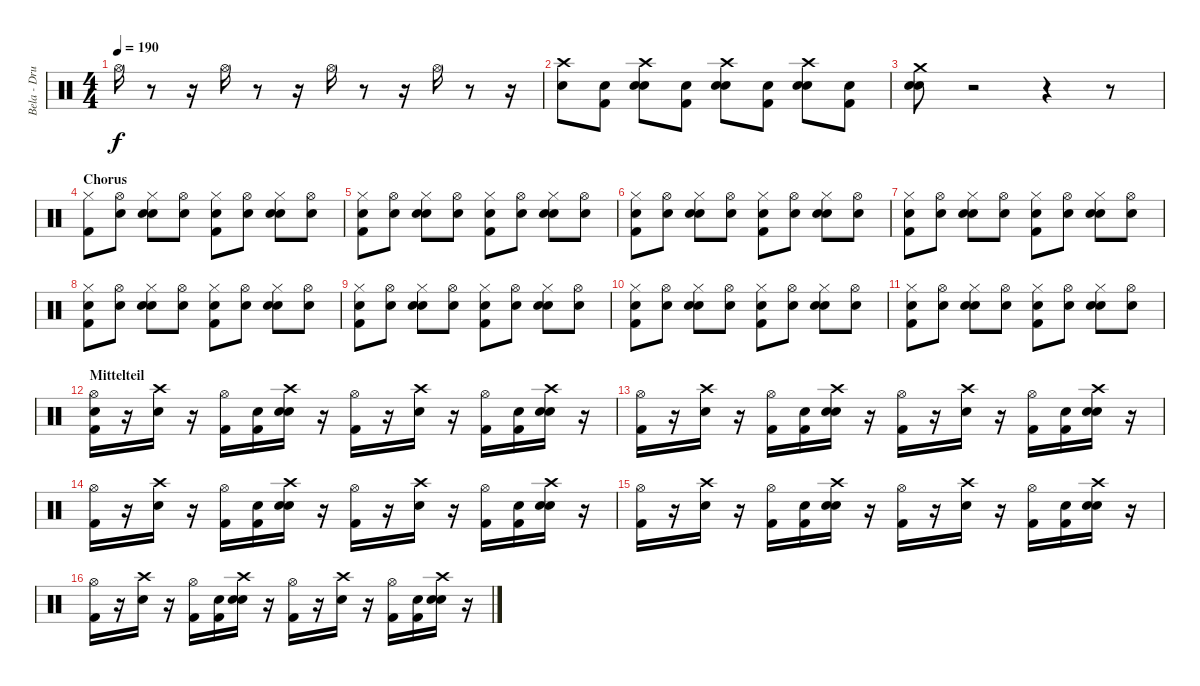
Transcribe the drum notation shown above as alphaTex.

\track ("Bela - Drums" "Bela - Dru") {instrument percussion}
\staff {score}
\articulation defaults
\ts (4 4)
\tempo 190
\clef neutral
\ks c "Hi-Hat (open)".16{dy f}
r.8 r.16 "Hi-Hat (open)".16 r.8 r.16 "Hi-Hat (open)".16 r.8 r.16 "Hi-Hat (open)".16 r.8 r.16 |
("Crash high (hit)" "Electric Snare (hit)").8 ("Snare (hit)" "Kick (hit) 2").8 ("Snare (hit)" "Crash high (hit)" "Electric Snare (hit)").8 ("Snare (hit)" "Kick (hit) 2").8 ("Snare (hit)" "Crash high (hit)" "Electric Snare (hit)").8 ("Snare (hit)" "Kick (hit) 2").8 ("Snare (hit)" "Crash high (hit)" "Electric Snare (hit)").8 ("Snare (hit)" "Kick (hit) 2").8 |
("Snare (hit)" "Crash medium (hit)" "Electric Snare (hit)").8 r.2 r.4 r.8 |
\section ("" "Chorus")
("Hi-Hat (closed)" "Kick (hit) 2").8 ("Snare (hit)" "Hi-Hat (open)").8 ("Snare (hit)" "Hi-Hat (closed)" "Snare (hit) 2").8 ("Snare (hit)" "Hi-Hat (open)").8 ("Snare (hit)" "Hi-Hat (closed)" "Kick (hit) 2").8 ("Snare (hit)" "Hi-Hat (open)").8 ("Snare (hit)" "Hi-Hat (closed)" "Snare (hit) 2").8 ("Snare (hit)" "Hi-Hat (open)").8 |
("Snare (hit)" "Hi-Hat (closed)" "Kick (hit) 2").8 ("Snare (hit)" "Hi-Hat (open)").8 ("Snare (hit)" "Hi-Hat (closed)" "Snare (hit) 2").8 ("Snare (hit)" "Hi-Hat (open)").8 ("Snare (hit)" "Hi-Hat (closed)" "Kick (hit) 2").8 ("Snare (hit)" "Hi-Hat (open)").8 ("Snare (hit)" "Hi-Hat (closed)" "Snare (hit) 2").8 ("Snare (hit)" "Hi-Hat (open)").8 |
("Snare (hit)" "Hi-Hat (closed)" "Kick (hit) 2").8 ("Snare (hit)" "Hi-Hat (open)").8 ("Snare (hit)" "Hi-Hat (closed)" "Snare (hit) 2").8 ("Snare (hit)" "Hi-Hat (open)").8 ("Snare (hit)" "Hi-Hat (closed)" "Kick (hit) 2").8 ("Snare (hit)" "Hi-Hat (open)").8 ("Snare (hit)" "Hi-Hat (closed)" "Snare (hit) 2").8 ("Snare (hit)" "Hi-Hat (open)").8 |
("Snare (hit)" "Hi-Hat (closed)" "Kick (hit) 2").8 ("Snare (hit)" "Hi-Hat (open)").8 ("Snare (hit)" "Hi-Hat (closed)" "Snare (hit) 2").8 ("Snare (hit)" "Hi-Hat (open)").8 ("Snare (hit)" "Hi-Hat (closed)" "Kick (hit) 2").8 ("Snare (hit)" "Hi-Hat (open)").8 ("Snare (hit)" "Hi-Hat (closed)" "Snare (hit) 2").8 ("Snare (hit)" "Hi-Hat (open)").8 |
("Snare (hit)" "Hi-Hat (closed)" "Kick (hit) 2").8 ("Snare (hit)" "Hi-Hat (open)").8 ("Snare (hit)" "Hi-Hat (closed)" "Snare (hit) 2").8 ("Snare (hit)" "Hi-Hat (open)").8 ("Snare (hit)" "Hi-Hat (closed)" "Kick (hit) 2").8 ("Snare (hit)" "Hi-Hat (open)").8 ("Snare (hit)" "Hi-Hat (closed)" "Snare (hit) 2").8 ("Snare (hit)" "Hi-Hat (open)").8 |
("Snare (hit)" "Hi-Hat (closed)" "Kick (hit) 2").8 ("Snare (hit)" "Hi-Hat (open)").8 ("Snare (hit)" "Hi-Hat (closed)" "Snare (hit) 2").8 ("Snare (hit)" "Hi-Hat (open)").8 ("Snare (hit)" "Hi-Hat (closed)" "Kick (hit) 2").8 ("Snare (hit)" "Hi-Hat (open)").8 ("Snare (hit)" "Hi-Hat (closed)" "Snare (hit) 2").8 ("Snare (hit)" "Hi-Hat (open)").8 |
("Snare (hit)" "Hi-Hat (closed)" "Kick (hit) 2").8 ("Snare (hit)" "Hi-Hat (open)").8 ("Snare (hit)" "Hi-Hat (closed)" "Snare (hit) 2").8 ("Snare (hit)" "Hi-Hat (open)").8 ("Snare (hit)" "Hi-Hat (closed)" "Kick (hit) 2").8 ("Snare (hit)" "Hi-Hat (open)").8 ("Snare (hit)" "Hi-Hat (closed)" "Snare (hit) 2").8 ("Snare (hit)" "Hi-Hat (open)").8 |
("Snare (hit)" "Hi-Hat (closed)" "Kick (hit) 2").8 ("Snare (hit)" "Hi-Hat (open)").8 ("Snare (hit)" "Hi-Hat (closed)" "Snare (hit) 2").8 ("Snare (hit)" "Hi-Hat (open)").8 ("Snare (hit)" "Hi-Hat (closed)" "Kick (hit) 2").8 ("Snare (hit)" "Hi-Hat (open)").8 ("Snare (hit)" "Hi-Hat (closed)" "Snare (hit) 2").8 ("Snare (hit)" "Hi-Hat (open)").8 |
\section ("" "Mittelteil")
("Snare (hit)" "Hi-Hat (open)" "Kick (hit) 2").16 r.16 ("Crash high (hit)" "Electric Snare (hit)").16 r.16 ("Hi-Hat (open)" "Kick (hit) 2").16 ("Snare (hit)" "Kick (hit) 2").16 ("Snare (hit)" "Crash high (hit)" "Electric Snare (hit)").16 r.16 ("Hi-Hat (open)" "Kick (hit) 2").16 r.16 ("Electric Snare (hit)" "Crash high (hit)").16 r.16 ("Hi-Hat (open)" "Kick (hit) 2").16 ("Snare (hit)" "Kick (hit) 2").16 ("Snare (hit)" "Crash high (hit)" "Electric Snare (hit)").16 r.16 |
("Hi-Hat (open)" "Kick (hit) 2").16 r.16 ("Crash high (hit)" "Electric Snare (hit)").16 r.16 ("Hi-Hat (open)" "Kick (hit) 2").16 ("Snare (hit)" "Kick (hit) 2").16 ("Snare (hit)" "Crash high (hit)" "Electric Snare (hit)").16 r.16 ("Hi-Hat (open)" "Kick (hit) 2").16 r.16 ("Electric Snare (hit)" "Crash high (hit)").16 r.16 ("Hi-Hat (open)" "Kick (hit) 2").16 ("Snare (hit)" "Kick (hit) 2").16 ("Snare (hit)" "Crash high (hit)" "Electric Snare (hit)").16 r.16 |
("Hi-Hat (open)" "Kick (hit) 2").16 r.16 ("Crash high (hit)" "Electric Snare (hit)").16 r.16 ("Hi-Hat (open)" "Kick (hit) 2").16 ("Snare (hit)" "Kick (hit) 2").16 ("Snare (hit)" "Crash high (hit)" "Electric Snare (hit)").16 r.16 ("Hi-Hat (open)" "Kick (hit) 2").16 r.16 ("Electric Snare (hit)" "Crash high (hit)").16 r.16 ("Hi-Hat (open)" "Kick (hit) 2").16 ("Snare (hit)" "Kick (hit) 2").16 ("Snare (hit)" "Crash high (hit)" "Electric Snare (hit)").16 r.16 |
("Hi-Hat (open)" "Kick (hit) 2").16 r.16 ("Crash high (hit)" "Electric Snare (hit)").16 r.16 ("Hi-Hat (open)" "Kick (hit) 2").16 ("Snare (hit)" "Kick (hit) 2").16 ("Snare (hit)" "Crash high (hit)" "Electric Snare (hit)").16 r.16 ("Hi-Hat (open)" "Kick (hit) 2").16 r.16 ("Electric Snare (hit)" "Crash high (hit)").16 r.16 ("Hi-Hat (open)" "Kick (hit) 2").16 ("Snare (hit)" "Kick (hit) 2").16 ("Snare (hit)" "Crash high (hit)" "Electric Snare (hit)").16 r.16 |
("Hi-Hat (open)" "Kick (hit) 2").16 r.16 ("Crash high (hit)" "Electric Snare (hit)").16 r.16 ("Hi-Hat (open)" "Kick (hit) 2").16 ("Snare (hit)" "Kick (hit) 2").16 ("Snare (hit)" "Crash high (hit)" "Electric Snare (hit)").16 r.16 ("Hi-Hat (open)" "Kick (hit) 2").16 r.16 ("Electric Snare (hit)" "Crash high (hit)").16 r.16 ("Hi-Hat (open)" "Kick (hit) 2").16 ("Snare (hit)" "Kick (hit) 2").16 ("Snare (hit)" "Crash high (hit)" "Electric Snare (hit)").16 r.16
